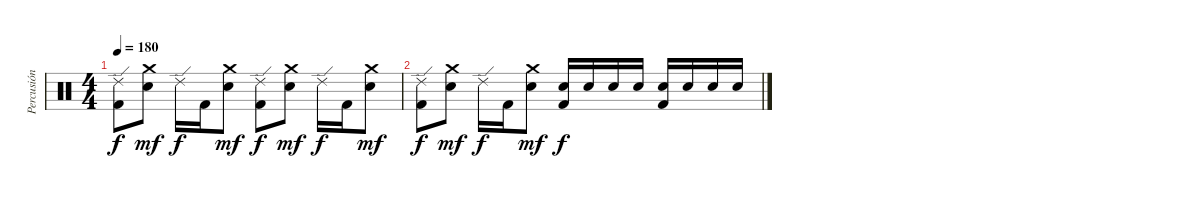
\track ("Percusión" "Percusión") {instrument percussion}
\staff {score}
\articulation defaults
\ts (4 4)
\tempo 180
\clef neutral
\ks c
("Ride (edge) 2" "Kick (hit) 2").8{dy f} ("Crash medium (hit)" "Electric Snare (hit)").8{dy mf} "Ride (edge) 2".16{dy f} "Kick (hit) 2".16 ("Crash medium (hit)" "Electric Snare (hit)").8{dy mf} ("Ride (edge) 2" "Kick (hit) 2").8{dy f} ("Crash medium (hit)" "Electric Snare (hit)").8{dy mf} "Ride (edge) 2".16{dy f} "Kick (hit) 2".16 ("Crash medium (hit)" "Electric Snare (hit)").8{dy mf} |
("Ride (edge) 2" "Kick (hit) 2").8{dy f} ("Crash medium (hit)" "Electric Snare (hit)").8{dy mf} "Ride (edge) 2".16{dy f} "Kick (hit) 2".16 ("Crash medium (hit)" "Electric Snare (hit)").8{dy mf} ("Electric Snare (hit)" "Kick (hit) 2").16{dy f} "Electric Snare (hit)".16 "Electric Snare (hit)".16 "Electric Snare (hit)".16 ("Electric Snare (hit)" "Kick (hit) 2").16 "Electric Snare (hit)".16 "Electric Snare (hit)".16 "Electric Snare (hit)".16
